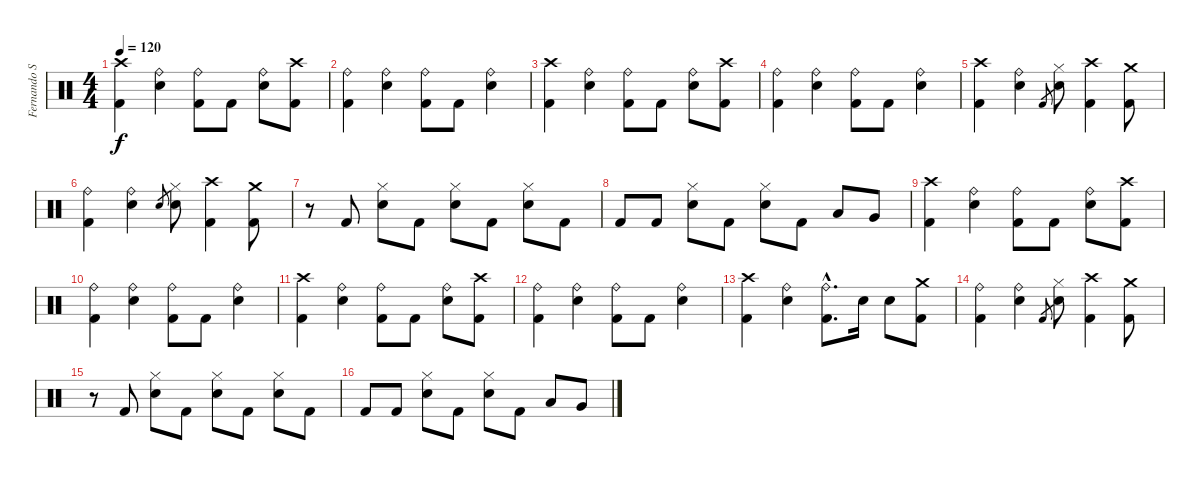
\track ("Fernando Scarcella" "Fernando S") {instrument percussion}
\staff {score}
\articulation defaults
\ts (4 4)
\tempo 120
\clef neutral
\ks c
("Crash high (hit)" "Kick (hit) 2").4{dy f} ("Ride (bell)" "Snare (hit) 2").4 ("Ride (bell)" "Kick (hit) 2").8 "Kick (hit) 2".8 ("Ride (bell)" "Snare (hit) 2").8 ("Crash high (hit)" "Kick (hit) 2").8 |
("Ride (bell)" "Kick (hit) 2").4 ("Ride (bell)" "Snare (hit) 2").4 ("Ride (bell)" "Kick (hit) 2").8 "Kick (hit) 2".8 ("Ride (bell)" "Snare (hit) 2").4 |
("Crash high (hit)" "Kick (hit) 2").4 ("Ride (bell)" "Snare (hit) 2").4 ("Ride (bell)" "Kick (hit) 2").8 "Kick (hit) 2".8 ("Ride (bell)" "Snare (hit) 2").8 ("Crash high (hit)" "Kick (hit) 2").8 |
("Ride (bell)" "Kick (hit) 2").4 ("Ride (bell)" "Snare (hit) 2").4 ("Ride (bell)" "Kick (hit) 2").8 "Kick (hit) 2".8 ("Ride (bell)" "Snare (hit) 2").4 |
("Crash high (hit)" "Kick (hit) 2").4 ("Ride (bell)" "Snare (hit) 2").4 "Kick (hit) 2".8{gr} ("Hi-Hat (closed)" "Snare (hit) 2").8 ("Crash high (hit)" "Kick (hit) 2").4 ("Crash medium (hit)" "Kick (hit) 2").8 |
("Ride (bell)" "Kick (hit) 2").4 ("Ride (bell)" "Snare (hit) 2").4 "Snare (hit) 2".8{gr} ("Hi-Hat (closed)" "Snare (hit) 2").8 ("Crash high (hit)" "Kick (hit) 2").4 ("Crash medium (hit)" "Kick (hit) 2").8 |
r.8 "Kick (hit) 2".8 ("Snare (hit) 2" "Hi-Hat (closed)").8 "Kick (hit) 2".8 ("Snare (hit) 2" "Hi-Hat (closed)").8 "Kick (hit) 2".8 ("Snare (hit) 2" "Hi-Hat (closed)").8 "Kick (hit) 2".8 |
"Kick (hit) 2".8 "Kick (hit) 2".8 ("Snare (hit) 2" "Hi-Hat (closed)").8 "Kick (hit) 2".8 ("Snare (hit) 2" "Hi-Hat (closed)").8 "Kick (hit) 2".8 "Low Tom (hit)".8 "Very Low Tom (hit)".8 |
("Crash high (hit)" "Kick (hit) 2").4 ("Ride (bell)" "Snare (hit) 2").4 ("Ride (bell)" "Kick (hit) 2").8 "Kick (hit) 2".8 ("Ride (bell)" "Snare (hit) 2").8 ("Crash high (hit)" "Kick (hit) 2").8 |
("Ride (bell)" "Kick (hit) 2").4 ("Ride (bell)" "Snare (hit) 2").4 ("Ride (bell)" "Kick (hit) 2").8 "Kick (hit) 2".8 ("Ride (bell)" "Snare (hit) 2").4 |
("Crash high (hit)" "Kick (hit) 2").4 ("Ride (bell)" "Snare (hit) 2").4 ("Ride (bell)" "Kick (hit) 2").8 "Kick (hit) 2".8 ("Ride (bell)" "Snare (hit) 2").8 ("Crash high (hit)" "Kick (hit) 2").8 |
("Ride (bell)" "Kick (hit) 2").4 ("Ride (bell)" "Snare (hit) 2").4 ("Ride (bell)" "Kick (hit) 2").8 "Kick (hit) 2".8 ("Ride (bell)" "Snare (hit) 2").4 |
("Crash high (hit)" "Kick (hit) 2").4 ("Ride (bell)" "Snare (hit) 2").4 ("Ride (bell)"{hac} "Kick (hit) 2"{hac}).8{d} "Snare (hit) 2".16 "Snare (hit) 2".8 ("Crash medium (hit)" "Kick (hit) 2").8 |
("Ride (bell)" "Kick (hit) 2").4 ("Ride (bell)" "Snare (hit) 2").4 "Kick (hit) 2".8{gr} ("Hi-Hat (closed)" "Snare (hit) 2").8 ("Crash high (hit)" "Kick (hit) 2").4 ("Crash medium (hit)" "Kick (hit) 2").8 |
r.8 "Kick (hit) 2".8 ("Snare (hit) 2" "Hi-Hat (closed)").8 "Kick (hit) 2".8 ("Snare (hit) 2" "Hi-Hat (closed)").8 "Kick (hit) 2".8 ("Snare (hit) 2" "Hi-Hat (closed)").8 "Kick (hit) 2".8 |
"Kick (hit) 2".8 "Kick (hit) 2".8 ("Snare (hit) 2" "Hi-Hat (closed)").8 "Kick (hit) 2".8 ("Snare (hit) 2" "Hi-Hat (closed)").8 "Kick (hit) 2".8 "Low Tom (hit)".8 "Very Low Tom (hit)".8
